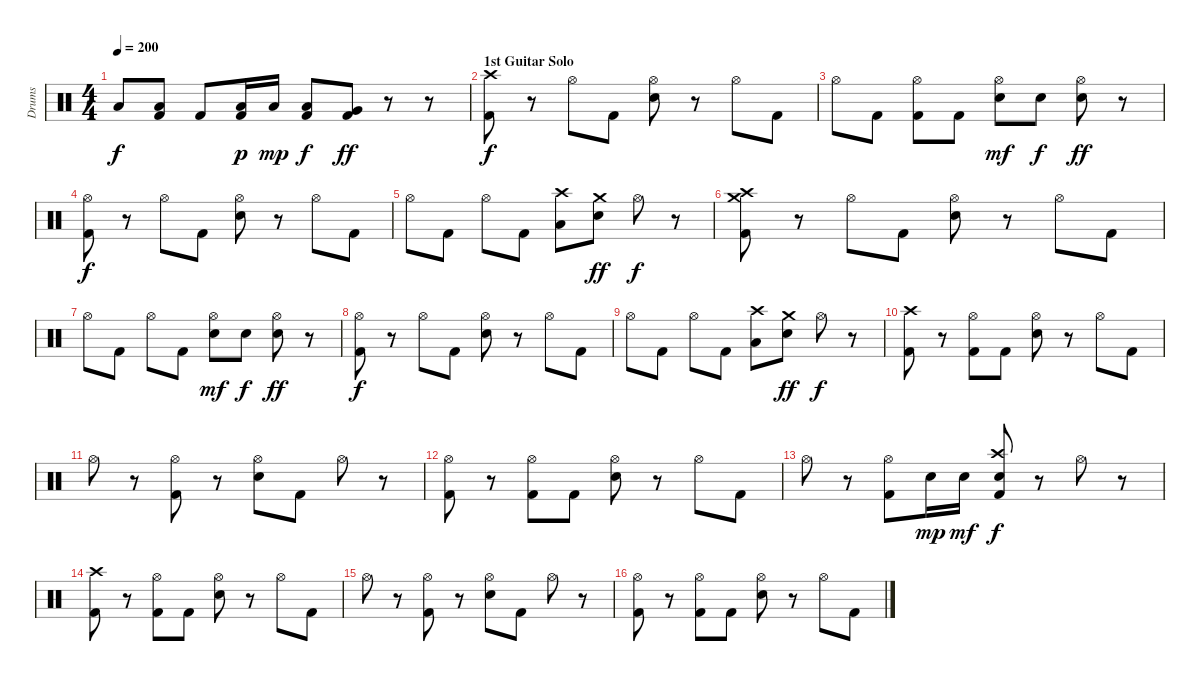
\track ("Drums" "Drums") {instrument percussion}
\staff {score}
\articulation defaults
\ts (4 4)
\tempo 200
\clef neutral
\ks c "Low Tom (hit)".8{dy f}
("Kick (hit) 2" "Low Tom (hit)").8 "Kick (hit) 2".8 ("Kick (hit) 2" "Low Tom (hit)").16{dy p} "Low Tom (hit)".16{dy mp} ("Kick (hit) 2" "Low Tom (hit)").8{dy f} ("Kick (hit) 2" "Very Low Tom (hit)").8{dy ff} r.8 r.8 |
\section ("" "1st Guitar Solo")
("Kick (hit) 2" "Crash high (hit)").8{dy f} r.8 "Hi-Hat (open)".8 "Kick (hit) 2".8 ("Electric Snare (hit)" "Hi-Hat (open)").8 r.8 "Hi-Hat (open)".8 "Kick (hit) 2".8 |
"Hi-Hat (open)".8 "Kick (hit) 2".8 ("Kick (hit) 2" "Hi-Hat (open)").8 "Kick (hit) 2".8 ("Electric Snare (hit)" "Hi-Hat (open)").8{dy mf} "Electric Snare (hit)".8{dy f} ("Electric Snare (hit)" "Hi-Hat (open)").8{dy ff} r.8 |
("Kick (hit) 2" "Hi-Hat (open)").8{dy f} r.8 "Hi-Hat (open)".8 "Kick (hit) 2".8 ("Electric Snare (hit)" "Hi-Hat (open)").8 r.8 "Hi-Hat (open)".8 "Kick (hit) 2".8 |
"Hi-Hat (open)".8 "Kick (hit) 2".8 "Hi-Hat (open)".8 "Kick (hit) 2".8 ("Low Tom (hit)" "Crash high (hit)").8 ("Electric Snare (hit)" "Crash medium (hit)").8{dy ff} "Hi-Hat (open)".8{dy f} r.8 |
("Kick (hit) 2" "Crash high (hit)" "Crash medium (hit)").8 r.8 "Hi-Hat (open)".8 "Kick (hit) 2".8 ("Electric Snare (hit)" "Hi-Hat (open)").8 r.8 "Hi-Hat (open)".8 "Kick (hit) 2".8 |
"Hi-Hat (open)".8 "Kick (hit) 2".8 "Hi-Hat (open)".8 "Kick (hit) 2".8 ("Electric Snare (hit)" "Hi-Hat (open)").8{dy mf} "Electric Snare (hit)".8{dy f} ("Electric Snare (hit)" "Hi-Hat (open)").8{dy ff} r.8 |
("Kick (hit) 2" "Hi-Hat (open)").8{dy f} r.8 "Hi-Hat (open)".8 "Kick (hit) 2".8 ("Electric Snare (hit)" "Hi-Hat (open)").8 r.8 "Hi-Hat (open)".8 "Kick (hit) 2".8 |
"Hi-Hat (open)".8 "Kick (hit) 2".8 "Hi-Hat (open)".8 "Kick (hit) 2".8 ("Low Tom (hit)" "Crash high (hit)").8 ("Electric Snare (hit)" "Crash medium (hit)").8{dy ff} "Hi-Hat (open)".8{dy f} r.8 |
("Kick (hit) 2" "Crash high (hit)").8 r.8 ("Kick (hit) 2" "Hi-Hat (open)").8 "Kick (hit) 2".8 ("Electric Snare (hit)" "Hi-Hat (open)").8 r.8 "Hi-Hat (open)".8 "Kick (hit) 2".8 |
"Hi-Hat (open)".8 r.8 ("Kick (hit) 2" "Hi-Hat (open)").8 r.8 ("Electric Snare (hit)" "Hi-Hat (open)").8 "Kick (hit) 2".8 "Hi-Hat (open)".8 r.8 |
("Kick (hit) 2" "Hi-Hat (open)").8 r.8 ("Kick (hit) 2" "Hi-Hat (open)").8 "Kick (hit) 2".8 ("Electric Snare (hit)" "Hi-Hat (open)").8 r.8 "Hi-Hat (open)".8 "Kick (hit) 2".8 |
"Hi-Hat (open)".8 r.8 ("Kick (hit) 2" "Hi-Hat (open)").8 "Electric Snare (hit)".16{dy mp} "Electric Snare (hit)".16{dy mf} ("Kick (hit) 2" "Electric Snare (hit)" "Crash high (hit)").8{dy f} r.8 "Hi-Hat (open)".8 r.8 |
("Kick (hit) 2" "Crash high (hit)").8 r.8 ("Kick (hit) 2" "Hi-Hat (open)").8 "Kick (hit) 2".8 ("Electric Snare (hit)" "Hi-Hat (open)").8 r.8 "Hi-Hat (open)".8 "Kick (hit) 2".8 |
"Hi-Hat (open)".8 r.8 ("Kick (hit) 2" "Hi-Hat (open)").8 r.8 ("Electric Snare (hit)" "Hi-Hat (open)").8 "Kick (hit) 2".8 "Hi-Hat (open)".8 r.8 |
("Kick (hit) 2" "Hi-Hat (open)").8 r.8 ("Kick (hit) 2" "Hi-Hat (open)").8 "Kick (hit) 2".8 ("Electric Snare (hit)" "Hi-Hat (open)").8 r.8 "Hi-Hat (open)".8 "Kick (hit) 2".8
